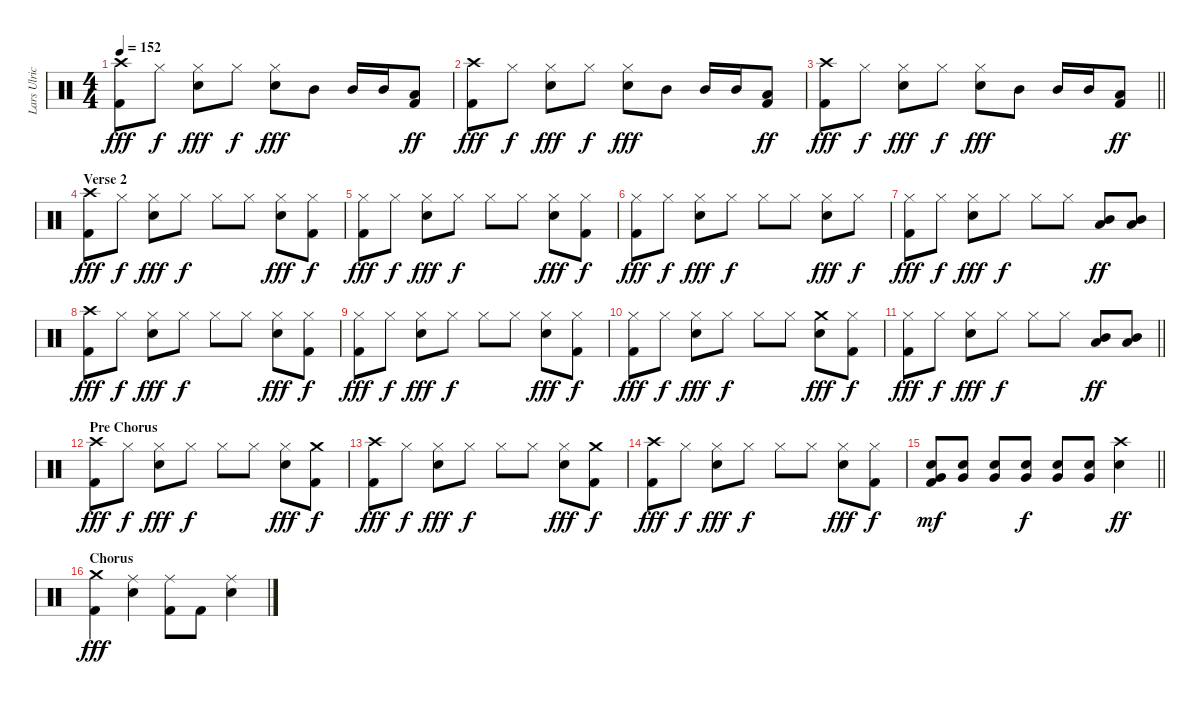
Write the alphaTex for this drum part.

\track ("Lars Ulrich" "Lars Ulric") {instrument percussion}
\staff {score}
\articulation defaults
\ts (4 4)
\tempo 152
\clef neutral
\ks c
("Crash high (hit)" "Kick (hit) 2").8{dy fff} "Hi-Hat (closed)".8{dy f} ("Hi-Hat (closed)" "Snare (hit) 2").8{dy fff} "Hi-Hat (closed)".8{dy f} ("Hi-Hat (closed)" "Snare (hit) 2").8{dy fff} "Mid Tom (hit)".8 "Mid Tom (hit)".16 "Mid Tom (hit)".16 ("Low Tom (hit)" "Kick (hit) 2").8{dy ff} |
("Crash high (hit)" "Kick (hit) 2").8{dy fff} "Hi-Hat (closed)".8{dy f} ("Hi-Hat (closed)" "Snare (hit) 2").8{dy fff} "Hi-Hat (closed)".8{dy f} ("Hi-Hat (closed)" "Snare (hit) 2").8{dy fff} "Mid Tom (hit)".8 "Mid Tom (hit)".16 "Mid Tom (hit)".16 ("Low Tom (hit)" "Kick (hit) 2").8{dy ff} |
\barLineRight lightlight
("Crash high (hit)" "Kick (hit) 2").8{dy fff} "Hi-Hat (closed)".8{dy f} ("Hi-Hat (closed)" "Snare (hit) 2").8{dy fff} "Hi-Hat (closed)".8{dy f} ("Hi-Hat (closed)" "Snare (hit) 2").8{dy fff} "Mid Tom (hit)".8 "Mid Tom (hit)".16 "Mid Tom (hit)".16 ("Low Tom (hit)" "Kick (hit) 2").8{dy ff} |
\section ("" "Verse 2")
("Crash high (hit)" "Kick (hit) 2").8{dy fff} "Hi-Hat (closed)".8{dy f} ("Hi-Hat (closed)" "Snare (hit) 2").8{dy fff} "Hi-Hat (closed)".8{dy f} "Hi-Hat (closed)".8 "Hi-Hat (closed)".8 ("Hi-Hat (closed)" "Snare (hit) 2").8{dy fff} ("Hi-Hat (closed)" "Kick (hit) 2").8{dy f} |
("Hi-Hat (closed)" "Kick (hit) 2").8{dy fff} "Hi-Hat (closed)".8{dy f} ("Hi-Hat (closed)" "Snare (hit) 2").8{dy fff} "Hi-Hat (closed)".8{dy f} "Hi-Hat (closed)".8 "Hi-Hat (closed)".8 ("Hi-Hat (closed)" "Snare (hit) 2").8{dy fff} ("Hi-Hat (closed)" "Kick (hit) 2").8{dy f} |
("Hi-Hat (closed)" "Kick (hit) 2").8{dy fff} "Hi-Hat (closed)".8{dy f} ("Hi-Hat (closed)" "Snare (hit) 2").8{dy fff} "Hi-Hat (closed)".8{dy f} "Hi-Hat (closed)".8 "Hi-Hat (closed)".8 ("Hi-Hat (closed)" "Snare (hit) 2").8{dy fff} "Hi-Hat (closed)".8{dy f} |
("Hi-Hat (closed)" "Kick (hit) 2").8{dy fff} "Hi-Hat (closed)".8{dy f} ("Hi-Hat (closed)" "Snare (hit) 2").8{dy fff} "Hi-Hat (closed)".8{dy f} "Hi-Hat (closed)".8 "Hi-Hat (closed)".8 ("Low Tom (hit)" "Mid Tom (hit)").8{dy ff} ("Low Tom (hit)" "Mid Tom (hit)").8 |
("Crash high (hit)" "Kick (hit) 2").8{dy fff} "Hi-Hat (closed)".8{dy f} ("Hi-Hat (closed)" "Snare (hit) 2").8{dy fff} "Hi-Hat (closed)".8{dy f} "Hi-Hat (closed)".8 "Hi-Hat (closed)".8 ("Hi-Hat (closed)" "Snare (hit) 2").8{dy fff} ("Hi-Hat (closed)" "Kick (hit) 2").8{dy f} |
("Hi-Hat (closed)" "Kick (hit) 2").8{dy fff} "Hi-Hat (closed)".8{dy f} ("Hi-Hat (closed)" "Snare (hit) 2").8{dy fff} "Hi-Hat (closed)".8{dy f} "Hi-Hat (closed)".8 "Hi-Hat (closed)".8 ("Hi-Hat (closed)" "Snare (hit) 2").8{dy fff} ("Hi-Hat (closed)" "Kick (hit) 2").8{dy f} |
("Hi-Hat (closed)" "Kick (hit) 2").8{dy fff} "Hi-Hat (closed)".8{dy f} ("Hi-Hat (closed)" "Snare (hit) 2").8{dy fff} "Hi-Hat (closed)".8{dy f} "Hi-Hat (closed)".8 "Hi-Hat (closed)".8 ("Crash medium (hit)" "Snare (hit) 2").8{dy fff} ("Hi-Hat (closed)" "Kick (hit) 2").8{dy f} |
\barLineRight lightlight
("Hi-Hat (closed)" "Kick (hit) 2").8{dy fff} "Hi-Hat (closed)".8{dy f} ("Hi-Hat (closed)" "Snare (hit) 2").8{dy fff} "Hi-Hat (closed)".8{dy f} "Hi-Hat (closed)".8 "Hi-Hat (closed)".8 ("Low Tom (hit)" "Mid Tom (hit)").8{dy ff} ("Low Tom (hit)" "Mid Tom (hit)").8 |
\section ("" "Pre Chorus")
("Crash high (hit)" "Kick (hit) 2").8{dy fff} "Hi-Hat (closed)".8{dy f} ("Hi-Hat (closed)" "Snare (hit) 2").8{dy fff} "Hi-Hat (closed)".8{dy f} "Hi-Hat (closed)".8 "Hi-Hat (closed)".8 ("Hi-Hat (closed)" "Snare (hit) 2").8{dy fff} ("Crash medium (hit)" "Kick (hit) 2").8{dy f} |
("Crash high (hit)" "Kick (hit) 2").8{dy fff} "Hi-Hat (closed)".8{dy f} ("Hi-Hat (closed)" "Snare (hit) 2").8{dy fff} "Hi-Hat (closed)".8{dy f} "Hi-Hat (closed)".8 "Hi-Hat (closed)".8 ("Hi-Hat (closed)" "Snare (hit) 2").8{dy fff} ("Crash medium (hit)" "Kick (hit) 2").8{dy f} |
("Crash high (hit)" "Kick (hit) 2").8{dy fff} "Hi-Hat (closed)".8{dy f} ("Hi-Hat (closed)" "Snare (hit) 2").8{dy fff} "Hi-Hat (closed)".8{dy f} "Hi-Hat (closed)".8 "Hi-Hat (closed)".8 ("Hi-Hat (closed)" "Snare (hit) 2").8{dy fff} ("Hi-Hat (closed)" "Kick (hit) 2").8{dy f} |
\barLineRight lightlight
("Very Low Tom (hit)" "Snare (hit) 2" "Kick (hit) 2").8{dy mf} ("Very Low Tom (hit)" "Snare (hit) 2").8 ("Very Low Tom (hit)" "Snare (hit) 2").8 ("Very Low Tom (hit)" "Snare (hit) 2").8{dy f} ("Very Low Tom (hit)" "Snare (hit) 2").8 ("Very Low Tom (hit)" "Snare (hit) 2").8 ("Crash high (hit)" "Snare (hit) 2").4{dy ff} |
\section ("" "Chorus")
("Crash medium (hit)" "Kick (hit) 2").4{dy fff} ("Ride (middle)" "Snare (hit) 2").4 ("Ride (middle)" "Kick (hit) 2").8 "Kick (hit) 2".8 ("Ride (middle)" "Snare (hit) 2").4
